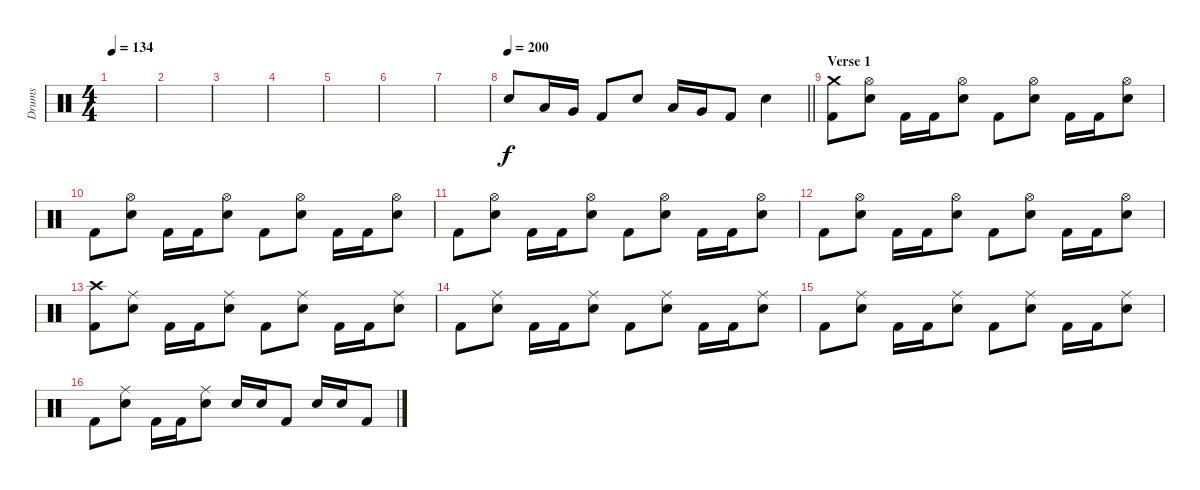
\track ("Drums" "Drums") {instrument percussion}
\staff {score}
\articulation defaults
\ts (4 4)
\tempo 134
\clef neutral
\ks c
|
|
|
|
|
|
|
\tempo 200
\barLineRight lightlight "Electric Snare (hit)".8 "Low Tom (hit)".16 "Very Low Tom (hit)".16 "Kick (hit) 2".8 "Electric Snare (hit)".8 "Low Tom (hit)".16 "Very Low Tom (hit)".16 "Kick (hit) 2".8 "Electric Snare (hit)".4
|
\section ("" "Verse 1")
("Crash medium (hit)" "Kick (hit) 2").8 ("Hi-Hat (open)" "Electric Snare (hit)").8 "Kick (hit) 2".16 "Kick (hit) 2".16 ("Hi-Hat (open)" "Electric Snare (hit)").8 "Kick (hit) 2".8 ("Hi-Hat (open)" "Electric Snare (hit)").8 "Kick (hit) 2".16 "Kick (hit) 2".16 ("Hi-Hat (open)" "Electric Snare (hit)").8 |
"Kick (hit) 2".8 ("Hi-Hat (open)" "Electric Snare (hit)").8 "Kick (hit) 2".16 "Kick (hit) 2".16 ("Hi-Hat (open)" "Electric Snare (hit)").8 "Kick (hit) 2".8 ("Hi-Hat (open)" "Electric Snare (hit)").8 "Kick (hit) 2".16 "Kick (hit) 2".16 ("Hi-Hat (open)" "Electric Snare (hit)").8 |
"Kick (hit) 2".8 ("Hi-Hat (open)" "Electric Snare (hit)").8 "Kick (hit) 2".16 "Kick (hit) 2".16 ("Hi-Hat (open)" "Electric Snare (hit)").8 "Kick (hit) 2".8 ("Hi-Hat (open)" "Electric Snare (hit)").8 "Kick (hit) 2".16 "Kick (hit) 2".16 ("Hi-Hat (open)" "Electric Snare (hit)").8 |
"Kick (hit) 2".8 ("Hi-Hat (open)" "Electric Snare (hit)").8 "Kick (hit) 2".16 "Kick (hit) 2".16 ("Hi-Hat (open)" "Electric Snare (hit)").8 "Kick (hit) 2".8 ("Hi-Hat (open)" "Electric Snare (hit)").8 "Kick (hit) 2".16 "Kick (hit) 2".16 ("Hi-Hat (open)" "Electric Snare (hit)").8 |
("Crash high (hit)" "Kick (hit) 2").8 ("Ride (middle)" "Electric Snare (hit)").8 "Kick (hit) 2".16 "Kick (hit) 2".16 ("Ride (middle)" "Electric Snare (hit)").8 "Kick (hit) 2".8 ("Ride (middle)" "Electric Snare (hit)").8 "Kick (hit) 2".16 "Kick (hit) 2".16 ("Ride (middle)" "Electric Snare (hit)").8 |
"Kick (hit) 2".8 ("Ride (middle)" "Electric Snare (hit)").8 "Kick (hit) 2".16 "Kick (hit) 2".16 ("Ride (middle)" "Electric Snare (hit)").8 "Kick (hit) 2".8 ("Ride (middle)" "Electric Snare (hit)").8 "Kick (hit) 2".16 "Kick (hit) 2".16 ("Ride (middle)" "Electric Snare (hit)").8 |
"Kick (hit) 2".8 ("Ride (middle)" "Electric Snare (hit)").8 "Kick (hit) 2".16 "Kick (hit) 2".16 ("Ride (middle)" "Electric Snare (hit)").8 "Kick (hit) 2".8 ("Ride (middle)" "Electric Snare (hit)").8 "Kick (hit) 2".16 "Kick (hit) 2".16 ("Ride (middle)" "Electric Snare (hit)").8 |
"Kick (hit) 2".8 ("Ride (middle)" "Electric Snare (hit)").8 "Kick (hit) 2".16 "Kick (hit) 2".16 ("Ride (middle)" "Electric Snare (hit)").8 "Electric Snare (hit)".16 "Electric Snare (hit)".16 "Kick (hit) 2".8 "Electric Snare (hit)".16 "Electric Snare (hit)".16 "Kick (hit) 2".8
